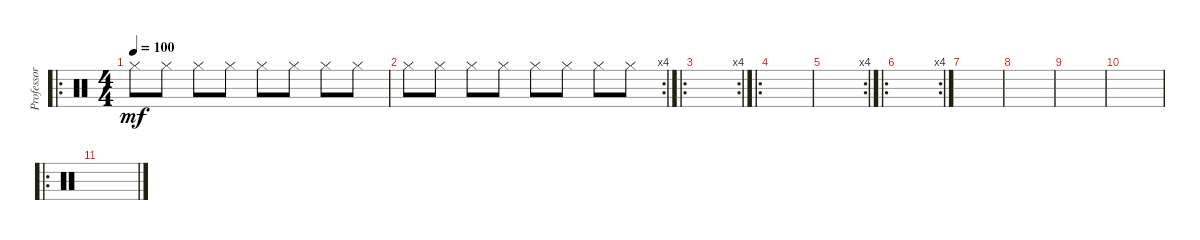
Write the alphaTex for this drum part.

\track ("Professor" "Professor") {instrument percussion}
\staff {score}
\articulation defaults
\ro
\ts (4 4)
\tempo 100
\clef neutral
\ks c "Hi-Hat (closed)".8{dy mf} "Hi-Hat (closed)".8 "Hi-Hat (closed)".8 "Hi-Hat (closed)".8 "Hi-Hat (closed)".8 "Hi-Hat (closed)".8 "Hi-Hat (closed)".8 "Hi-Hat (closed)".8
|
\rc 4 "Hi-Hat (closed)".8 "Hi-Hat (closed)".8 "Hi-Hat (closed)".8 "Hi-Hat (closed)".8 "Hi-Hat (closed)".8 "Hi-Hat (closed)".8 "Hi-Hat (closed)".8 "Hi-Hat (closed)".8
|
\ro
\rc 4
|
\ro
|
\rc 4
|
\ro
\rc 4
|
|
|
|
|
\ro
